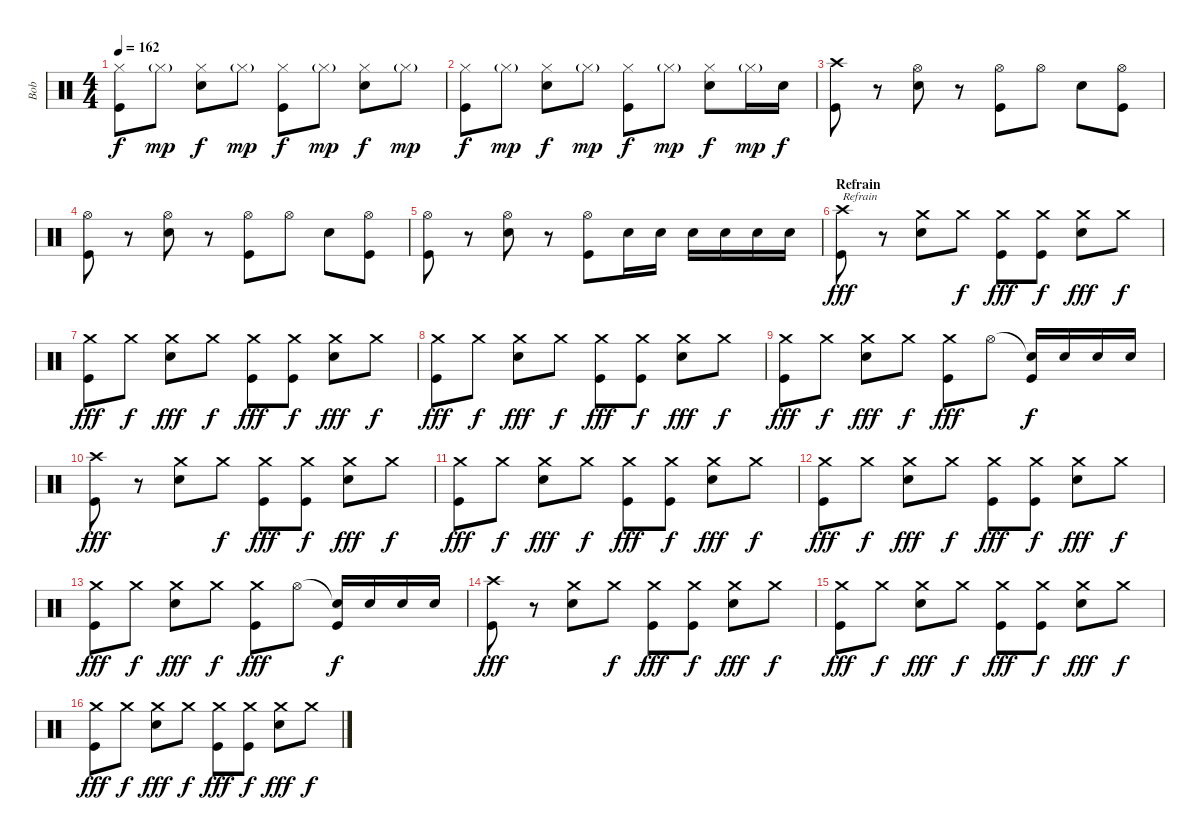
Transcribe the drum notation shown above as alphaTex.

\track ("Bob" "Bob") {instrument percussion}
\staff {score}
\articulation defaults
\ts (4 4)
\tempo 162
\clef neutral
\ks c
("Hi-Hat (closed)" "Kick (hit)").8{dy f} "Hi-Hat (closed)"{g}.8{dy mp} ("Hi-Hat (closed)" "Electric Snare (hit)").8{dy f} "Hi-Hat (closed)"{g}.8{dy mp} ("Hi-Hat (closed)" "Kick (hit)").8{dy f} "Hi-Hat (closed)"{g}.8{dy mp} ("Hi-Hat (closed)" "Electric Snare (hit)").8{dy f} "Hi-Hat (closed)"{g}.8{dy mp} |
("Hi-Hat (closed)" "Kick (hit)").8{dy f} "Hi-Hat (closed)"{g}.8{dy mp} ("Hi-Hat (closed)" "Electric Snare (hit)").8{dy f} "Hi-Hat (closed)"{g}.8{dy mp} ("Hi-Hat (closed)" "Kick (hit)").8{dy f} "Hi-Hat (closed)"{g}.8{dy mp} ("Hi-Hat (closed)" "Electric Snare (hit)").8{dy f} "Hi-Hat (closed)"{g}.16{dy mp} "Electric Snare (hit)".16{dy f} |
("Crash high (hit)" "Kick (hit)").8 r.8 ("Hi-Hat (open)" "Electric Snare (hit)").8 r.8 ("Hi-Hat (open)" "Kick (hit)").8 "Hi-Hat (open)".8 "Electric Snare (hit)".8 ("Hi-Hat (open)" "Kick (hit)").8 |
("Hi-Hat (open)" "Kick (hit)").8 r.8 ("Hi-Hat (open)" "Electric Snare (hit)").8 r.8 ("Hi-Hat (open)" "Kick (hit)").8 "Hi-Hat (open)".8 "Electric Snare (hit)".8 ("Hi-Hat (open)" "Kick (hit)").8 |
("Hi-Hat (open)" "Kick (hit)").8 r.8 ("Hi-Hat (open)" "Electric Snare (hit)").8 r.8 ("Hi-Hat (open)" "Kick (hit)").8 "Electric Snare (hit)".16 "Electric Snare (hit)".16 "Electric Snare (hit)".16 "Electric Snare (hit)".16 "Electric Snare (hit)".16 "Electric Snare (hit)".16 |
\section ("" "Refrain")
("Crash high (hit)" "Kick (hit)").8{txt "Refrain" dy fff} r.8 ("Crash medium (hit)" "Electric Snare (hit)").8 "Crash medium (hit)".8{dy f} ("Crash medium (hit)" "Kick (hit)").8{dy fff} ("Crash medium (hit)" "Kick (hit)").8{dy f} ("Crash medium (hit)" "Electric Snare (hit)").8{dy fff} "Crash medium (hit)".8{dy f} |
("Crash medium (hit)" "Kick (hit)").8{dy fff} "Crash medium (hit)".8{dy f} ("Crash medium (hit)" "Electric Snare (hit)").8{dy fff} "Crash medium (hit)".8{dy f} ("Crash medium (hit)" "Kick (hit)").8{dy fff} ("Crash medium (hit)" "Kick (hit)").8{dy f} ("Crash medium (hit)" "Electric Snare (hit)").8{dy fff} "Crash medium (hit)".8{dy f} |
("Crash medium (hit)" "Kick (hit)").8{dy fff} "Crash medium (hit)".8{dy f} ("Crash medium (hit)" "Electric Snare (hit)").8{dy fff} "Crash medium (hit)".8{dy f} ("Crash medium (hit)" "Kick (hit)").8{dy fff} ("Crash medium (hit)" "Kick (hit)").8{dy f} ("Crash medium (hit)" "Electric Snare (hit)").8{dy fff} "Crash medium (hit)".8{dy f} |
("Crash medium (hit)" "Kick (hit)").8{dy fff} "Crash medium (hit)".8{dy f} ("Crash medium (hit)" "Electric Snare (hit)").8{dy fff} "Crash medium (hit)".8{dy f} ("Crash medium (hit)" "Kick (hit)").8{dy fff} "Hi-Hat (open)".8 ("Snare (hit)"{t} "Kick (hit)").16{dy f} "Electric Snare (hit)".16 "Electric Snare (hit)".16 "Electric Snare (hit)".16 |
("Crash high (hit)" "Kick (hit)").8{dy fff} r.8 ("Crash medium (hit)" "Electric Snare (hit)").8 "Crash medium (hit)".8{dy f} ("Crash medium (hit)" "Kick (hit)").8{dy fff} ("Crash medium (hit)" "Kick (hit)").8{dy f} ("Crash medium (hit)" "Electric Snare (hit)").8{dy fff} "Crash medium (hit)".8{dy f} |
("Crash medium (hit)" "Kick (hit)").8{dy fff} "Crash medium (hit)".8{dy f} ("Crash medium (hit)" "Electric Snare (hit)").8{dy fff} "Crash medium (hit)".8{dy f} ("Crash medium (hit)" "Kick (hit)").8{dy fff} ("Crash medium (hit)" "Kick (hit)").8{dy f} ("Crash medium (hit)" "Electric Snare (hit)").8{dy fff} "Crash medium (hit)".8{dy f} |
("Crash medium (hit)" "Kick (hit)").8{dy fff} "Crash medium (hit)".8{dy f} ("Crash medium (hit)" "Electric Snare (hit)").8{dy fff} "Crash medium (hit)".8{dy f} ("Crash medium (hit)" "Kick (hit)").8{dy fff} ("Crash medium (hit)" "Kick (hit)").8{dy f} ("Crash medium (hit)" "Electric Snare (hit)").8{dy fff} "Crash medium (hit)".8{dy f} |
("Crash medium (hit)" "Kick (hit)").8{dy fff} "Crash medium (hit)".8{dy f} ("Crash medium (hit)" "Electric Snare (hit)").8{dy fff} "Crash medium (hit)".8{dy f} ("Crash medium (hit)" "Kick (hit)").8{dy fff} "Hi-Hat (open)".8 ("Snare (hit)"{t} "Kick (hit)").16{dy f} "Electric Snare (hit)".16 "Electric Snare (hit)".16 "Electric Snare (hit)".16 |
("Crash high (hit)" "Kick (hit)").8{dy fff} r.8 ("Crash medium (hit)" "Electric Snare (hit)").8 "Crash medium (hit)".8{dy f} ("Crash medium (hit)" "Kick (hit)").8{dy fff} ("Crash medium (hit)" "Kick (hit)").8{dy f} ("Crash medium (hit)" "Electric Snare (hit)").8{dy fff} "Crash medium (hit)".8{dy f} |
("Crash medium (hit)" "Kick (hit)").8{dy fff} "Crash medium (hit)".8{dy f} ("Crash medium (hit)" "Electric Snare (hit)").8{dy fff} "Crash medium (hit)".8{dy f} ("Crash medium (hit)" "Kick (hit)").8{dy fff} ("Crash medium (hit)" "Kick (hit)").8{dy f} ("Crash medium (hit)" "Electric Snare (hit)").8{dy fff} "Crash medium (hit)".8{dy f} |
("Crash medium (hit)" "Kick (hit)").8{dy fff} "Crash medium (hit)".8{dy f} ("Crash medium (hit)" "Electric Snare (hit)").8{dy fff} "Crash medium (hit)".8{dy f} ("Crash medium (hit)" "Kick (hit)").8{dy fff} ("Crash medium (hit)" "Kick (hit)").8{dy f} ("Crash medium (hit)" "Electric Snare (hit)").8{dy fff} "Crash medium (hit)".8{dy f}
